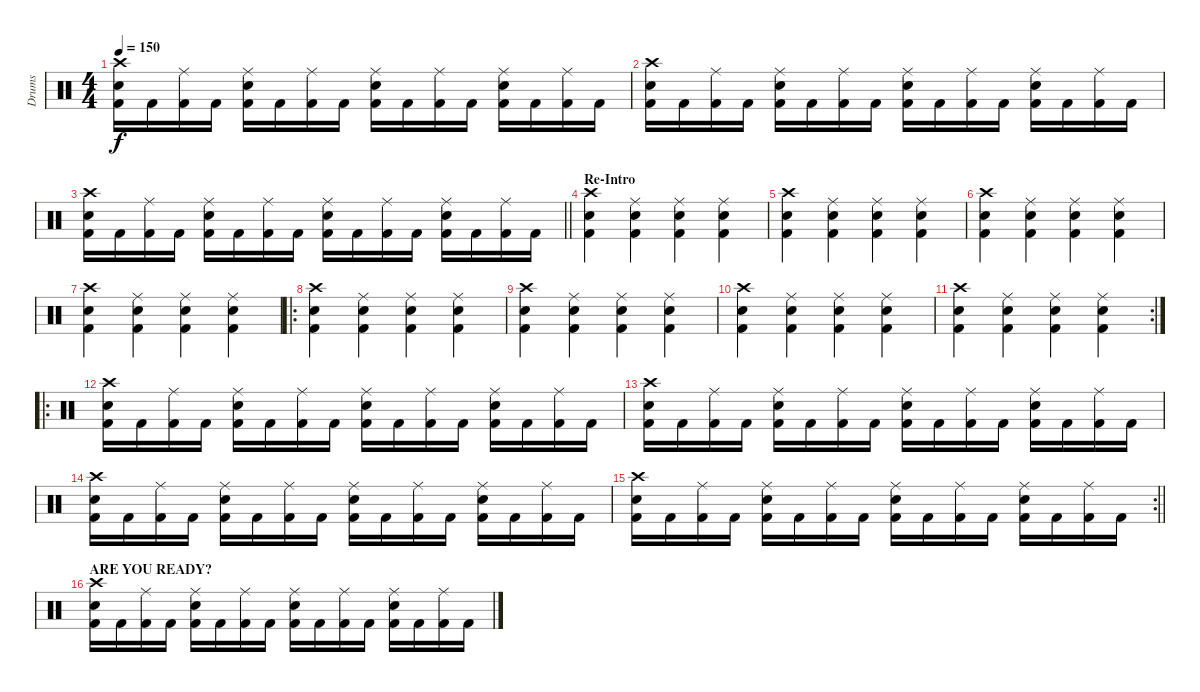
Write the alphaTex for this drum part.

\track ("Drums" "Drums") {instrument percussion}
\staff {score}
\articulation defaults
\ts (4 4)
\tempo 150
\clef neutral
\ks c
("Kick (hit) 2" "Snare (hit) 2" "Crash high (hit)").16{dy f} "Kick (hit) 2".16 ("Kick (hit) 2" "Ride (middle)").16 "Kick (hit) 2".16 ("Kick (hit) 2" "Snare (hit) 2" "Ride (middle)").16 "Kick (hit) 2".16 ("Kick (hit) 2" "Ride (middle)").16 "Kick (hit) 2".16 ("Kick (hit) 2" "Snare (hit) 2" "Ride (middle)").16 "Kick (hit) 2".16 ("Kick (hit) 2" "Ride (middle)").16 "Kick (hit) 2".16 ("Kick (hit) 2" "Snare (hit) 2" "Ride (middle)").16 "Kick (hit) 2".16 ("Kick (hit) 2" "Ride (middle)").16 "Kick (hit) 2".16 |
("Kick (hit) 2" "Snare (hit) 2" "Crash high (hit)").16 "Kick (hit) 2".16 ("Kick (hit) 2" "Ride (middle)").16 "Kick (hit) 2".16 ("Kick (hit) 2" "Snare (hit) 2" "Ride (middle)").16 "Kick (hit) 2".16 ("Kick (hit) 2" "Ride (middle)").16 "Kick (hit) 2".16 ("Kick (hit) 2" "Snare (hit) 2" "Ride (middle)").16 "Kick (hit) 2".16 ("Kick (hit) 2" "Ride (middle)").16 "Kick (hit) 2".16 ("Kick (hit) 2" "Snare (hit) 2" "Ride (middle)").16 "Kick (hit) 2".16 ("Kick (hit) 2" "Ride (middle)").16 "Kick (hit) 2".16 |
\barLineRight lightlight
("Kick (hit) 2" "Snare (hit) 2" "Crash high (hit)").16 "Kick (hit) 2".16 ("Kick (hit) 2" "Ride (middle)").16 "Kick (hit) 2".16 ("Kick (hit) 2" "Snare (hit) 2" "Ride (middle)").16 "Kick (hit) 2".16 ("Kick (hit) 2" "Ride (middle)").16 "Kick (hit) 2".16 ("Kick (hit) 2" "Snare (hit) 2" "Ride (middle)").16 "Kick (hit) 2".16 ("Kick (hit) 2" "Ride (middle)").16 "Kick (hit) 2".16 ("Kick (hit) 2" "Snare (hit) 2" "Ride (middle)").16 "Kick (hit) 2".16 ("Kick (hit) 2" "Ride (middle)").16 "Kick (hit) 2".16 |
\section ("" "Re-Intro")
("Crash high (hit)" "Snare (hit) 2" "Kick (hit) 2").4 ("Ride (middle)" "Snare (hit) 2" "Kick (hit) 2").4 ("Ride (middle)" "Snare (hit) 2" "Kick (hit) 2").4 ("Ride (middle)" "Snare (hit) 2" "Kick (hit) 2").4 |
("Crash high (hit)" "Snare (hit) 2" "Kick (hit) 2").4 ("Ride (middle)" "Snare (hit) 2" "Kick (hit) 2").4 ("Ride (middle)" "Snare (hit) 2" "Kick (hit) 2").4 ("Ride (middle)" "Snare (hit) 2" "Kick (hit) 2").4 |
("Crash high (hit)" "Snare (hit) 2" "Kick (hit) 2").4 ("Ride (middle)" "Snare (hit) 2" "Kick (hit) 2").4 ("Ride (middle)" "Snare (hit) 2" "Kick (hit) 2").4 ("Ride (middle)" "Snare (hit) 2" "Kick (hit) 2").4 |
("Crash high (hit)" "Snare (hit) 2" "Kick (hit) 2").4 ("Ride (middle)" "Snare (hit) 2" "Kick (hit) 2").4 ("Ride (middle)" "Snare (hit) 2" "Kick (hit) 2").4 ("Ride (middle)" "Snare (hit) 2" "Kick (hit) 2").4 |
\ro
("Crash high (hit)" "Snare (hit) 2" "Kick (hit) 2").4 ("Ride (middle)" "Snare (hit) 2" "Kick (hit) 2").4 ("Ride (middle)" "Snare (hit) 2" "Kick (hit) 2").4 ("Ride (middle)" "Snare (hit) 2" "Kick (hit) 2").4 |
("Crash high (hit)" "Snare (hit) 2" "Kick (hit) 2").4 ("Ride (middle)" "Snare (hit) 2" "Kick (hit) 2").4 ("Ride (middle)" "Snare (hit) 2" "Kick (hit) 2").4 ("Ride (middle)" "Snare (hit) 2" "Kick (hit) 2").4 |
("Crash high (hit)" "Snare (hit) 2" "Kick (hit) 2").4 ("Ride (middle)" "Snare (hit) 2" "Kick (hit) 2").4 ("Ride (middle)" "Snare (hit) 2" "Kick (hit) 2").4 ("Ride (middle)" "Snare (hit) 2" "Kick (hit) 2").4 |
\rc 2
("Crash high (hit)" "Snare (hit) 2" "Kick (hit) 2").4 ("Ride (middle)" "Snare (hit) 2" "Kick (hit) 2").4 ("Ride (middle)" "Snare (hit) 2" "Kick (hit) 2").4 ("Ride (middle)" "Snare (hit) 2" "Kick (hit) 2").4 |
\ro
("Kick (hit) 2" "Snare (hit) 2" "Crash high (hit)").16 "Kick (hit) 2".16 ("Kick (hit) 2" "Ride (middle)").16 "Kick (hit) 2".16 ("Kick (hit) 2" "Snare (hit) 2" "Ride (middle)").16 "Kick (hit) 2".16 ("Kick (hit) 2" "Ride (middle)").16 "Kick (hit) 2".16 ("Kick (hit) 2" "Snare (hit) 2" "Ride (middle)").16 "Kick (hit) 2".16 ("Kick (hit) 2" "Ride (middle)").16 "Kick (hit) 2".16 ("Kick (hit) 2" "Snare (hit) 2" "Ride (middle)").16 "Kick (hit) 2".16 ("Kick (hit) 2" "Ride (middle)").16 "Kick (hit) 2".16 |
("Kick (hit) 2" "Snare (hit) 2" "Crash high (hit)").16 "Kick (hit) 2".16 ("Kick (hit) 2" "Ride (middle)").16 "Kick (hit) 2".16 ("Kick (hit) 2" "Snare (hit) 2" "Ride (middle)").16 "Kick (hit) 2".16 ("Kick (hit) 2" "Ride (middle)").16 "Kick (hit) 2".16 ("Kick (hit) 2" "Snare (hit) 2" "Ride (middle)").16 "Kick (hit) 2".16 ("Kick (hit) 2" "Ride (middle)").16 "Kick (hit) 2".16 ("Kick (hit) 2" "Snare (hit) 2" "Ride (middle)").16 "Kick (hit) 2".16 ("Kick (hit) 2" "Ride (middle)").16 "Kick (hit) 2".16 |
("Kick (hit) 2" "Snare (hit) 2" "Crash high (hit)").16 "Kick (hit) 2".16 ("Kick (hit) 2" "Ride (middle)").16 "Kick (hit) 2".16 ("Kick (hit) 2" "Snare (hit) 2" "Ride (middle)").16 "Kick (hit) 2".16 ("Kick (hit) 2" "Ride (middle)").16 "Kick (hit) 2".16 ("Kick (hit) 2" "Snare (hit) 2" "Ride (middle)").16 "Kick (hit) 2".16 ("Kick (hit) 2" "Ride (middle)").16 "Kick (hit) 2".16 ("Kick (hit) 2" "Snare (hit) 2" "Ride (middle)").16 "Kick (hit) 2".16 ("Kick (hit) 2" "Ride (middle)").16 "Kick (hit) 2".16 |
\rc 2
\barLineRight lightlight
("Kick (hit) 2" "Snare (hit) 2" "Crash high (hit)").16 "Kick (hit) 2".16 ("Kick (hit) 2" "Ride (middle)").16 "Kick (hit) 2".16 ("Kick (hit) 2" "Snare (hit) 2" "Ride (middle)").16 "Kick (hit) 2".16 ("Kick (hit) 2" "Ride (middle)").16 "Kick (hit) 2".16 ("Kick (hit) 2" "Snare (hit) 2" "Ride (middle)").16 "Kick (hit) 2".16 ("Kick (hit) 2" "Ride (middle)").16 "Kick (hit) 2".16 ("Kick (hit) 2" "Snare (hit) 2" "Ride (middle)").16 "Kick (hit) 2".16 ("Kick (hit) 2" "Ride (middle)").16 "Kick (hit) 2".16 |
\section ("" "ARE YOU READY?")
("Kick (hit) 2" "Snare (hit) 2" "Crash high (hit)").16 "Kick (hit) 2".16 ("Kick (hit) 2" "Ride (middle)").16 "Kick (hit) 2".16 ("Kick (hit) 2" "Snare (hit) 2" "Ride (middle)").16 "Kick (hit) 2".16 ("Kick (hit) 2" "Ride (middle)").16 "Kick (hit) 2".16 ("Kick (hit) 2" "Snare (hit) 2" "Ride (middle)").16 "Kick (hit) 2".16 ("Kick (hit) 2" "Ride (middle)").16 "Kick (hit) 2".16 ("Kick (hit) 2" "Snare (hit) 2" "Ride (middle)").16 "Kick (hit) 2".16 ("Kick (hit) 2" "Ride (middle)").16 "Kick (hit) 2".16
